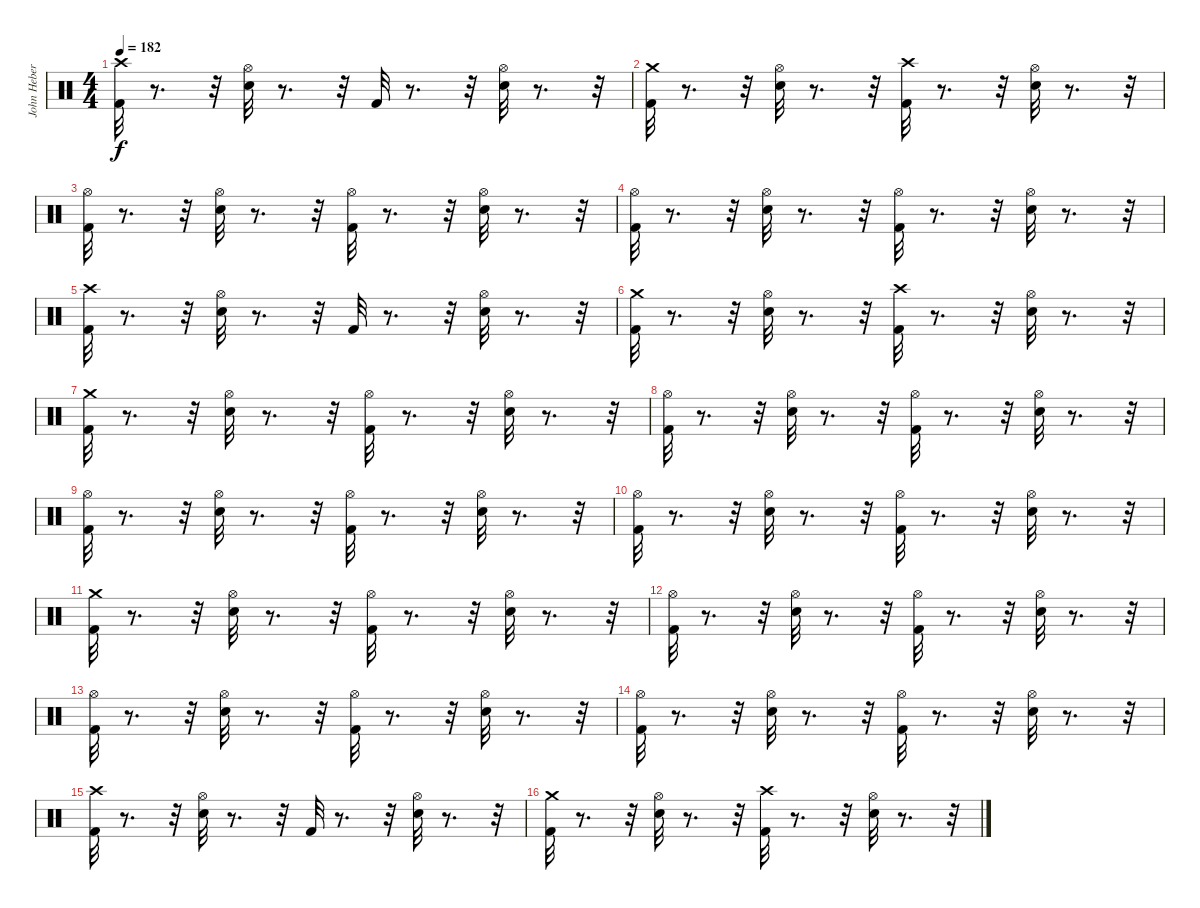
\track ("John Hebert" "John Heber") {instrument percussion}
\staff {score}
\articulation defaults
\ts (4 4)
\tempo 182
\clef neutral
\ks c
("Kick (hit) 2" "Crash high (hit)").32{dy f} r.8{d} r.32 ("Snare (hit) 2" "Hi-Hat (open)").32 r.8{d} r.32 "Kick (hit) 2".32 r.8{d} r.32 ("Snare (hit) 2" "Hi-Hat (open)").32 r.8{d} r.32 |
("Kick (hit) 2" "Crash medium (hit)").32 r.8{d} r.32 ("Hi-Hat (open)" "Snare (hit) 2").32 r.8{d} r.32 ("Kick (hit) 2" "Crash high (hit)").32 r.8{d} r.32 ("Snare (hit) 2" "Hi-Hat (open)").32 r.8{d} r.32 |
("Hi-Hat (open)" "Kick (hit) 2").32 r.8{d} r.32 ("Hi-Hat (open)" "Snare (hit) 2").32 r.8{d} r.32 ("Hi-Hat (open)" "Kick (hit) 2").32 r.8{d} r.32 ("Hi-Hat (open)" "Snare (hit) 2").32 r.8{d} r.32 |
("Hi-Hat (open)" "Kick (hit) 2").32 r.8{d} r.32 ("Hi-Hat (open)" "Snare (hit) 2").32 r.8{d} r.32 ("Hi-Hat (open)" "Kick (hit) 2").32 r.8{d} r.32 ("Hi-Hat (open)" "Snare (hit) 2").32 r.8{d} r.32 |
("Kick (hit) 2" "Crash high (hit)").32 r.8{d} r.32 ("Snare (hit) 2" "Hi-Hat (open)").32 r.8{d} r.32 "Kick (hit) 2".32 r.8{d} r.32 ("Snare (hit) 2" "Hi-Hat (open)").32 r.8{d} r.32 |
("Kick (hit) 2" "Crash medium (hit)").32 r.8{d} r.32 ("Hi-Hat (open)" "Snare (hit) 2").32 r.8{d} r.32 ("Kick (hit) 2" "Crash high (hit)").32 r.8{d} r.32 ("Snare (hit) 2" "Hi-Hat (open)").32 r.8{d} r.32 |
("Crash medium (hit)" "Kick (hit) 2").32 r.8{d} r.32 ("Hi-Hat (open)" "Snare (hit) 2").32 r.8{d} r.32 ("Hi-Hat (open)" "Kick (hit) 2").32 r.8{d} r.32 ("Hi-Hat (open)" "Snare (hit) 2").32 r.8{d} r.32 |
("Hi-Hat (open)" "Kick (hit) 2").32 r.8{d} r.32 ("Hi-Hat (open)" "Snare (hit) 2").32 r.8{d} r.32 ("Hi-Hat (open)" "Kick (hit) 2").32 r.8{d} r.32 ("Hi-Hat (open)" "Snare (hit) 2").32 r.8{d} r.32 |
("Hi-Hat (open)" "Kick (hit) 2").32 r.8{d} r.32 ("Hi-Hat (open)" "Snare (hit) 2").32 r.8{d} r.32 ("Hi-Hat (open)" "Kick (hit) 2").32 r.8{d} r.32 ("Hi-Hat (open)" "Snare (hit) 2").32 r.8{d} r.32 |
("Hi-Hat (open)" "Kick (hit) 2").32 r.8{d} r.32 ("Hi-Hat (open)" "Snare (hit) 2").32 r.8{d} r.32 ("Hi-Hat (open)" "Kick (hit) 2").32 r.8{d} r.32 ("Hi-Hat (open)" "Snare (hit) 2").32 r.8{d} r.32 |
("Crash medium (hit)" "Kick (hit) 2").32 r.8{d} r.32 ("Hi-Hat (open)" "Snare (hit) 2").32 r.8{d} r.32 ("Hi-Hat (open)" "Kick (hit) 2").32 r.8{d} r.32 ("Hi-Hat (open)" "Snare (hit) 2").32 r.8{d} r.32 |
("Hi-Hat (open)" "Kick (hit) 2").32 r.8{d} r.32 ("Hi-Hat (open)" "Snare (hit) 2").32 r.8{d} r.32 ("Hi-Hat (open)" "Kick (hit) 2").32 r.8{d} r.32 ("Hi-Hat (open)" "Snare (hit) 2").32 r.8{d} r.32 |
("Hi-Hat (open)" "Kick (hit) 2").32 r.8{d} r.32 ("Hi-Hat (open)" "Snare (hit) 2").32 r.8{d} r.32 ("Hi-Hat (open)" "Kick (hit) 2").32 r.8{d} r.32 ("Hi-Hat (open)" "Snare (hit) 2").32 r.8{d} r.32 |
("Hi-Hat (open)" "Kick (hit) 2").32 r.8{d} r.32 ("Hi-Hat (open)" "Snare (hit) 2").32 r.8{d} r.32 ("Hi-Hat (open)" "Kick (hit) 2").32 r.8{d} r.32 ("Hi-Hat (open)" "Snare (hit) 2").32 r.8{d} r.32 |
("Kick (hit) 2" "Crash high (hit)").32 r.8{d} r.32 ("Snare (hit) 2" "Hi-Hat (open)").32 r.8{d} r.32 "Kick (hit) 2".32 r.8{d} r.32 ("Snare (hit) 2" "Hi-Hat (open)").32 r.8{d} r.32 |
("Kick (hit) 2" "Crash medium (hit)").32 r.8{d} r.32 ("Hi-Hat (open)" "Snare (hit) 2").32 r.8{d} r.32 ("Kick (hit) 2" "Crash high (hit)").32 r.8{d} r.32 ("Snare (hit) 2" "Hi-Hat (open)").32 r.8{d} r.32
